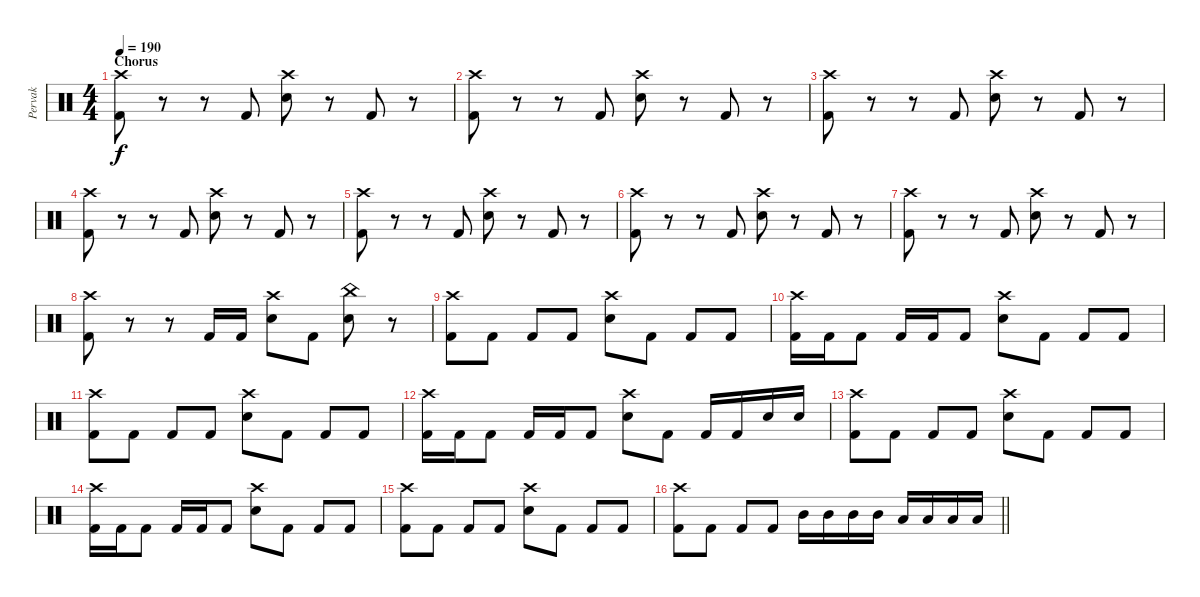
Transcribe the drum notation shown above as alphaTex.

\track ("Pervak" "Pervak") {instrument percussion}
\staff {score}
\articulation defaults
\ts (4 4)
\section ("" "Chorus")
\tempo 190
\clef neutral
\ks c
("Crash high (hit)" "Kick (hit) 2").8{dy f} r.8 r.8 "Kick (hit) 2".8 ("Crash high (hit)" "Electric Snare (hit)").8 r.8 "Kick (hit) 2".8 r.8 |
("Crash high (hit)" "Kick (hit) 2").8 r.8 r.8 "Kick (hit) 2".8 ("Crash high (hit)" "Electric Snare (hit)").8 r.8 "Kick (hit) 2".8 r.8 |
("Crash high (hit)" "Kick (hit) 2").8 r.8 r.8 "Kick (hit) 2".8 ("Crash high (hit)" "Electric Snare (hit)").8 r.8 "Kick (hit) 2".8 r.8 |
("Crash high (hit)" "Kick (hit) 2").8 r.8 r.8 "Kick (hit) 2".8 ("Crash high (hit)" "Electric Snare (hit)").8 r.8 "Kick (hit) 2".8 r.8 |
("Crash high (hit)" "Kick (hit) 2").8 r.8 r.8 "Kick (hit) 2".8 ("Crash high (hit)" "Electric Snare (hit)").8 r.8 "Kick (hit) 2".8 r.8 |
("Crash high (hit)" "Kick (hit) 2").8 r.8 r.8 "Kick (hit) 2".8 ("Crash high (hit)" "Electric Snare (hit)").8 r.8 "Kick (hit) 2".8 r.8 |
("Crash high (hit)" "Kick (hit) 2").8 r.8 r.8 "Kick (hit) 2".8 ("Crash high (hit)" "Electric Snare (hit)").8 r.8 "Kick (hit) 2".8 r.8 |
("Crash high (hit)" "Kick (hit) 2").8 r.8 r.8 "Kick (hit) 2".16 "Kick (hit) 2".16 ("Crash high (hit)" "Electric Snare (hit)").8 "Kick (hit) 2".8 ("China (hit)" "Electric Snare (hit)").8 r.8 |
("Crash high (hit)" "Kick (hit) 2").8 "Kick (hit) 2".8 "Kick (hit) 2".8 "Kick (hit) 2".8 ("Crash high (hit)" "Electric Snare (hit)").8 "Kick (hit) 2".8 "Kick (hit) 2".8 "Kick (hit) 2".8 |
("Crash high (hit)" "Kick (hit) 2").16 "Kick (hit) 2".16 "Kick (hit) 2".8 "Kick (hit) 2".16 "Kick (hit) 2".16 "Kick (hit) 2".8 ("Crash high (hit)" "Electric Snare (hit)").8 "Kick (hit) 2".8 "Kick (hit) 2".8 "Kick (hit) 2".8 |
("Crash high (hit)" "Kick (hit) 2").8 "Kick (hit) 2".8 "Kick (hit) 2".8 "Kick (hit) 2".8 ("Crash high (hit)" "Electric Snare (hit)").8 "Kick (hit) 2".8 "Kick (hit) 2".8 "Kick (hit) 2".8 |
("Crash high (hit)" "Kick (hit) 2").16 "Kick (hit) 2".16 "Kick (hit) 2".8 "Kick (hit) 2".16 "Kick (hit) 2".16 "Kick (hit) 2".8 ("Crash high (hit)" "Electric Snare (hit)").8 "Kick (hit) 2".8 "Kick (hit) 2".16 "Kick (hit) 2".16 "Electric Snare (hit)".16 "Electric Snare (hit)".16 |
("Crash high (hit)" "Kick (hit) 2").8 "Kick (hit) 2".8 "Kick (hit) 2".8 "Kick (hit) 2".8 ("Crash high (hit)" "Electric Snare (hit)").8 "Kick (hit) 2".8 "Kick (hit) 2".8 "Kick (hit) 2".8 |
("Crash high (hit)" "Kick (hit) 2").16 "Kick (hit) 2".16 "Kick (hit) 2".8 "Kick (hit) 2".16 "Kick (hit) 2".16 "Kick (hit) 2".8 ("Crash high (hit)" "Electric Snare (hit)").8 "Kick (hit) 2".8 "Kick (hit) 2".8 "Kick (hit) 2".8 |
("Crash high (hit)" "Kick (hit) 2").8 "Kick (hit) 2".8 "Kick (hit) 2".8 "Kick (hit) 2".8 ("Crash high (hit)" "Electric Snare (hit)").8 "Kick (hit) 2".8 "Kick (hit) 2".8 "Kick (hit) 2".8 |
\barLineRight lightlight
("Crash high (hit)" "Kick (hit) 2").8 "Kick (hit) 2".8 "Kick (hit) 2".8 "Kick (hit) 2".8 "Mid Tom (hit)".16 "Mid Tom (hit)".16 "Mid Tom (hit)".16 "Mid Tom (hit)".16 "Low Tom (hit)".16 "Low Tom (hit)".16 "Low Tom (hit)".16 "Low Tom (hit)".16
